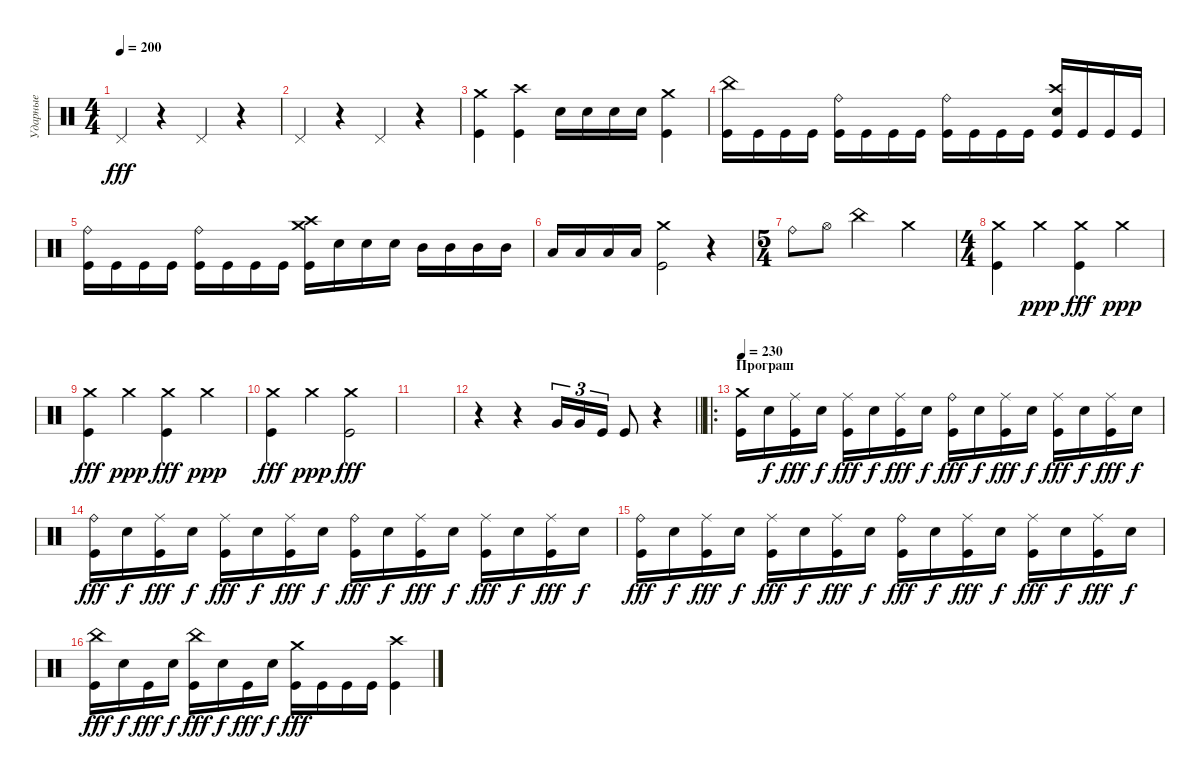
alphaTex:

\track ("Ударные" "Ударные") {instrument percussion}
\staff {score}
\articulation defaults
\ts (4 4)
\tempo 200
\clef neutral
\ks c "Pedal Hi-Hat (hit)".4{dy fff}
r.4 "Pedal Hi-Hat (hit)".4 r.4 |
"Pedal Hi-Hat (hit)".4 r.4 "Pedal Hi-Hat (hit)".4 r.4 |
("Crash medium (hit)" "Kick (hit)").4 ("Crash high (hit)" "Kick (hit)").4 "Electric Snare (hit)".16 "Electric Snare (hit)".16 "Electric Snare (hit)".16 "Electric Snare (hit)".16 ("Crash medium (hit)" "Kick (hit)").4 |
("China (hit)" "Kick (hit)").16 "Kick (hit)".16 "Kick (hit)".16 "Kick (hit)".16 ("Kick (hit)" "Ride (bell)").16 "Kick (hit)".16 "Kick (hit)".16 "Kick (hit)".16 ("Kick (hit)" "Ride (bell)").16 "Kick (hit)".16 "Kick (hit)".16 "Kick (hit)".16 ("Kick (hit)" "Electric Snare (hit)" "Crash high (hit)").16 "Kick (hit)".16 "Kick (hit)".16 "Kick (hit)".16 |
("Kick (hit)" "Ride (bell)").16 "Kick (hit)".16 "Kick (hit)".16 "Kick (hit)".16 ("Kick (hit)" "Ride (bell)").16 "Kick (hit)".16 "Kick (hit)".16 "Kick (hit)".16 ("Crash medium (hit)" "Crash high (hit)" "Kick (hit)").16 "Electric Snare (hit)".16 "Electric Snare (hit)".16 "Electric Snare (hit)".16 "Mid Tom (hit)".16 "Mid Tom (hit)".16 "Mid Tom (hit)".16 "Mid Tom (hit)".16 |
"Low Tom (hit)".16 "Low Tom (hit)".16 "Low Tom (hit)".16 "Low Tom (hit)".16 ("Crash medium (hit)" "Kick (hit)").2 r.4 |
\ts (5 4)
"Ride (bell)".8 "Hi-Hat (open)".8 "China (hit)".2 "Crash medium (hit)".2 |
\ts (4 4)
("Crash medium (hit)" "Kick (hit)").4 "Crash medium (hit)".4{dy ppp} ("Crash medium (hit)" "Kick (hit)").4{dy fff} "Crash medium (hit)".4{dy ppp} |
("Crash medium (hit)" "Kick (hit)").4{dy fff} "Crash medium (hit)".4{dy ppp} ("Crash medium (hit)" "Kick (hit)").4{dy fff} "Crash medium (hit)".4{dy ppp} |
("Crash medium (hit)" "Kick (hit)").4{dy fff} "Crash medium (hit)".4{dy ppp} ("Crash medium (hit)" "Kick (hit)").2{dy fff} |
|
\barLineRight lightlight
r.4 r.4 "Very Low Tom (hit)".16{tu (3 2)} "Very Low Tom (hit)".16{tu (3 2)} "Kick (hit)".16{tu (3 2)} "Kick (hit)".8 r.4 |
\ro
\section ("" "Програш")
\tempo 230
("Crash medium (hit)" "Kick (hit)").16 "Electric Snare (hit)".16{dy f} ("Kick (hit)" "Ride (middle)").16{dy fff} "Electric Snare (hit)".16{dy f} ("Kick (hit)" "Ride (middle)").16{dy fff} "Electric Snare (hit)".16{dy f} ("Kick (hit)" "Ride (middle)").16{dy fff} "Electric Snare (hit)".16{dy f} ("Kick (hit)" "Ride (bell)").16{dy fff} "Electric Snare (hit)".16{dy f} ("Kick (hit)" "Ride (middle)").16{dy fff} "Electric Snare (hit)".16{dy f} ("Kick (hit)" "Ride (middle)").16{dy fff} "Electric Snare (hit)".16{dy f} ("Kick (hit)" "Ride (middle)").16{dy fff} "Electric Snare (hit)".16{dy f} |
("Kick (hit)" "Ride (bell)").16{dy fff} "Electric Snare (hit)".16{dy f} ("Kick (hit)" "Ride (middle)").16{dy fff} "Electric Snare (hit)".16{dy f} ("Kick (hit)" "Ride (middle)").16{dy fff} "Electric Snare (hit)".16{dy f} ("Kick (hit)" "Ride (middle)").16{dy fff} "Electric Snare (hit)".16{dy f} ("Kick (hit)" "Ride (bell)").16{dy fff} "Electric Snare (hit)".16{dy f} ("Kick (hit)" "Ride (middle)").16{dy fff} "Electric Snare (hit)".16{dy f} ("Kick (hit)" "Ride (middle)").16{dy fff} "Electric Snare (hit)".16{dy f} ("Kick (hit)" "Ride (middle)").16{dy fff} "Electric Snare (hit)".16{dy f} |
("Kick (hit)" "Ride (bell)").16{dy fff} "Electric Snare (hit)".16{dy f} ("Kick (hit)" "Ride (middle)").16{dy fff} "Electric Snare (hit)".16{dy f} ("Kick (hit)" "Ride (middle)").16{dy fff} "Electric Snare (hit)".16{dy f} ("Kick (hit)" "Ride (middle)").16{dy fff} "Electric Snare (hit)".16{dy f} ("Kick (hit)" "Ride (bell)").16{dy fff} "Electric Snare (hit)".16{dy f} ("Kick (hit)" "Ride (middle)").16{dy fff} "Electric Snare (hit)".16{dy f} ("Kick (hit)" "Ride (middle)").16{dy fff} "Electric Snare (hit)".16{dy f} ("Kick (hit)" "Ride (middle)").16{dy fff} "Electric Snare (hit)".16{dy f} |
("Kick (hit)" "China (hit)").16{dy fff} "Electric Snare (hit)".16{dy f} "Kick (hit)".16{dy fff} "Electric Snare (hit)".16{dy f} ("Kick (hit)" "China (hit)").16{dy fff} "Electric Snare (hit)".16{dy f} "Kick (hit)".16{dy fff} "Electric Snare (hit)".16{dy f} ("Kick (hit)" "Crash medium (hit)").16{dy fff} "Kick (hit)".16 "Kick (hit)".16 "Kick (hit)".16 ("Crash high (hit)" "Kick (hit)").4
